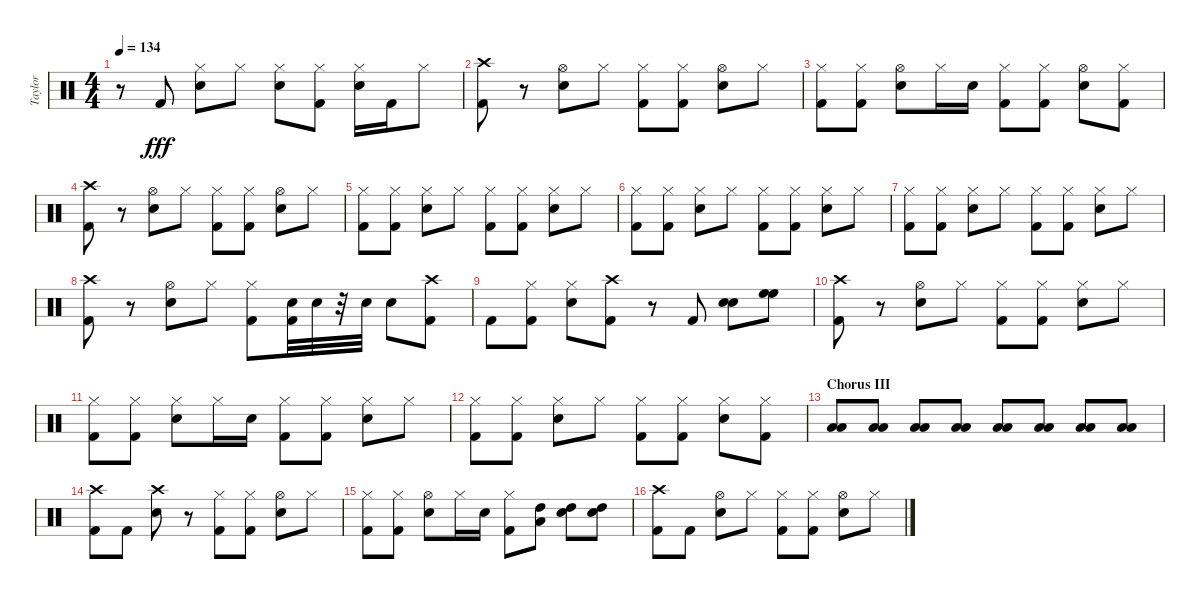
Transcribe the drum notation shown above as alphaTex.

\track ("Taylor" "Taylor") {instrument percussion}
\staff {score}
\articulation defaults
\ts (4 4)
\tempo 134
\clef neutral
\ks c
r.8{dy fff} "Kick (hit) 2".8 ("Snare (hit) 2" "Hi-Hat (closed)").8 "Hi-Hat (closed)".8 ("Snare (hit) 2" "Hi-Hat (closed)").8 ("Kick (hit) 2" "Hi-Hat (closed)").8 ("Snare (hit) 2" "Hi-Hat (closed)").16 "Kick (hit) 2".16 "Hi-Hat (closed)".8 |
("Kick (hit) 2" "Crash high (hit)").8 r.8 ("Snare (hit) 2" "Hi-Hat (open)").8 "Hi-Hat (closed)".8 ("Kick (hit) 2" "Hi-Hat (closed)").8 ("Kick (hit) 2" "Hi-Hat (closed)").8 ("Snare (hit) 2" "Hi-Hat (open)").8 "Hi-Hat (closed)".8 |
("Kick (hit) 2" "Hi-Hat (closed)").8 ("Kick (hit) 2" "Hi-Hat (closed)").8 ("Snare (hit) 2" "Hi-Hat (open)").8 "Hi-Hat (closed)".16 "Snare (hit) 2".16 ("Kick (hit) 2" "Hi-Hat (closed)").8 ("Kick (hit) 2" "Hi-Hat (closed)").8 ("Snare (hit) 2" "Hi-Hat (open)").8 ("Kick (hit) 2" "Hi-Hat (closed)").8 |
("Kick (hit) 2" "Crash high (hit)").8 r.8 ("Snare (hit) 2" "Hi-Hat (open)").8 "Hi-Hat (closed)".8 ("Kick (hit) 2" "Hi-Hat (closed)").8 ("Kick (hit) 2" "Hi-Hat (closed)").8 ("Snare (hit) 2" "Hi-Hat (open)").8 "Hi-Hat (closed)".8 |
("Kick (hit) 2" "Hi-Hat (closed)").8 ("Kick (hit) 2" "Hi-Hat (closed)").8 ("Snare (hit) 2" "Hi-Hat (closed)").8 "Hi-Hat (closed)".8 ("Kick (hit) 2" "Hi-Hat (closed)").8 ("Kick (hit) 2" "Hi-Hat (closed)").8 ("Snare (hit) 2" "Hi-Hat (closed)").8 "Hi-Hat (closed)".8 |
("Kick (hit) 2" "Hi-Hat (closed)").8 ("Kick (hit) 2" "Hi-Hat (closed)").8 ("Snare (hit) 2" "Hi-Hat (closed)").8 "Hi-Hat (closed)".8 ("Kick (hit) 2" "Hi-Hat (closed)").8 ("Kick (hit) 2" "Hi-Hat (closed)").8 ("Snare (hit) 2" "Hi-Hat (closed)").8 "Hi-Hat (closed)".8 |
("Kick (hit) 2" "Hi-Hat (closed)").8 ("Kick (hit) 2" "Hi-Hat (closed)").8 ("Snare (hit) 2" "Hi-Hat (closed)").8 "Hi-Hat (closed)".8 ("Kick (hit) 2" "Hi-Hat (closed)").8 ("Kick (hit) 2" "Hi-Hat (closed)").8 ("Snare (hit) 2" "Hi-Hat (closed)").8 "Hi-Hat (closed)".8 |
("Kick (hit) 2" "Crash high (hit)").8 r.8 ("Snare (hit) 2" "Hi-Hat (open)").8 "Hi-Hat (closed)".8 ("Kick (hit) 2" "Hi-Hat (closed)").8 ("Snare (hit) 2" "Kick (hit) 2").32 "Snare (hit) 2".32 r.32 "Snare (hit) 2".32 "Snare (hit) 2".8 ("Kick (hit) 2" "Crash high (hit)").8 |
"Kick (hit) 2".8 ("Kick (hit) 2" "Hi-Hat (closed)").8 ("Snare (hit) 2" "Hi-Hat (closed)").8 ("Kick (hit) 2" "Crash high (hit)").8 r.8 "Kick (hit) 2".8 ("Snare (hit) 2" "Snare (hit) 2").8 ("High Floor Tom (hit)" "High Floor Tom (hit)").8 |
("Kick (hit) 2" "Crash high (hit)").8 r.8 ("Snare (hit) 2" "Hi-Hat (open)").8 "Hi-Hat (closed)".8 ("Kick (hit) 2" "Hi-Hat (closed)").8 ("Kick (hit) 2" "Hi-Hat (closed)").8 ("Snare (hit) 2" "Hi-Hat (closed)").8 "Hi-Hat (closed)".8 |
("Kick (hit) 2" "Hi-Hat (closed)").8 ("Kick (hit) 2" "Hi-Hat (closed)").8 ("Snare (hit) 2" "Hi-Hat (closed)").8 "Hi-Hat (closed)".16 "Snare (hit) 2".16 ("Kick (hit) 2" "Hi-Hat (closed)").8 ("Kick (hit) 2" "Hi-Hat (closed)").8 ("Snare (hit) 2" "Hi-Hat (closed)").8 "Hi-Hat (closed)".8 |
("Kick (hit) 2" "Hi-Hat (closed)").8 ("Kick (hit) 2" "Hi-Hat (closed)").8 ("Snare (hit) 2" "Hi-Hat (closed)").8 "Hi-Hat (closed)".8 ("Kick (hit) 2" "Hi-Hat (closed)").8 ("Kick (hit) 2" "Hi-Hat (closed)").8 ("Snare (hit) 2" "Hi-Hat (closed)").8 ("Kick (hit) 2" "Hi-Hat (closed)").8 |
\section ("" "Chorus III")
("Low Floor Tom (hit)" "Low Tom (hit)").8 ("Low Floor Tom (hit)" "Low Tom (hit)").8 ("Low Floor Tom (hit)" "Low Tom (hit)").8 ("Low Floor Tom (hit)" "Low Tom (hit)").8 ("Low Floor Tom (hit)" "Low Tom (hit)").8 ("Low Floor Tom (hit)" "Low Tom (hit)").8 ("Low Floor Tom (hit)" "Low Tom (hit)").8 ("Low Floor Tom (hit)" "Low Tom (hit)").8 |
("Kick (hit) 2" "Crash high (hit)").8 "Kick (hit) 2".8 ("Snare (hit) 2" "Crash high (hit)").8 r.8 ("Kick (hit) 2" "Hi-Hat (closed)").8 ("Kick (hit) 2" "Hi-Hat (closed)").8 ("Snare (hit) 2" "Hi-Hat (open)").8 "Hi-Hat (closed)".8 |
("Kick (hit) 2" "Hi-Hat (closed)").8 ("Kick (hit) 2" "Hi-Hat (closed)").8 ("Snare (hit) 2" "Hi-Hat (open)").8 "Hi-Hat (closed)".16 "Snare (hit) 2".16 ("Kick (hit) 2" "Hi-Hat (closed)").8 ("High Tom (hit)" "Low Tom (hit)").8 ("Snare (hit) 2" "High Tom (hit)").8 ("Snare (hit) 2" "High Tom (hit)").8 |
("Kick (hit) 2" "Crash high (hit)").8 "Kick (hit) 2".8 ("Snare (hit) 2" "Hi-Hat (open)").8 "Hi-Hat (closed)".8 ("Kick (hit) 2" "Hi-Hat (closed)").8 ("Kick (hit) 2" "Hi-Hat (closed)").8 ("Snare (hit) 2" "Hi-Hat (open)").8 "Hi-Hat (closed)".8
